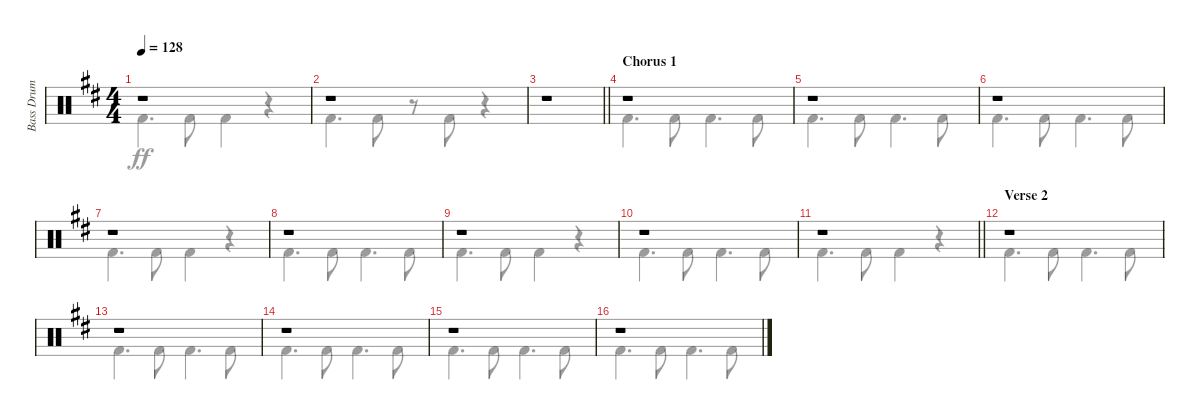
\track ("Bass Drum" "Bass Drum") {instrument percussion}
\staff {score}
\articulation defaults
\voice
\ts (4 4)
\tempo 128
\clef neutral
\ks bminor
r.1{dy f} |
r.1 |
\barLineRight lightlight
r.1 |
\section ("" "Chorus 1")
r.1 |
r.1 |
r.1 |
r.1 |
r.1 |
r.1 |
r.1 |
\barLineRight lightlight
r.1 |
\section ("" "Verse 2")
r.1 |
r.1 |
r.1 |
r.1 |
r.1
\voice
\clef neutral
\ottava regular
\simile none
\ks bminor "Kick (hit) 2".4{d dy ff} "Kick (hit) 2".8 "Kick (hit) 2".4
r.4 |
"Kick (hit) 2".4{d} "Kick (hit) 2".8 r.8 "Kick (hit) 2".8 r.4 |
\barLineRight lightlight
|
"Kick (hit) 2".4{d} "Kick (hit) 2".8 "Kick (hit) 2".4{d} "Kick (hit) 2".8 |
"Kick (hit) 2".4{d} "Kick (hit) 2".8 "Kick (hit) 2".4{d} "Kick (hit) 2".8 |
"Kick (hit) 2".4{d} "Kick (hit) 2".8 "Kick (hit) 2".4{d} "Kick (hit) 2".8 |
"Kick (hit) 2".4{d} "Kick (hit) 2".8 "Kick (hit) 2".4 r.4 |
"Kick (hit) 2".4{d} "Kick (hit) 2".8 "Kick (hit) 2".4{d} "Kick (hit) 2".8 |
"Kick (hit) 2".4{d} "Kick (hit) 2".8 "Kick (hit) 2".4 r.4 |
"Kick (hit) 2".4{d} "Kick (hit) 2".8 "Kick (hit) 2".4{d} "Kick (hit) 2".8 |
\barLineRight lightlight "Kick (hit) 2".4{d} "Kick (hit) 2".8 "Kick (hit) 2".4
r.4 |
"Kick (hit) 2".4{d} "Kick (hit) 2".8 "Kick (hit) 2".4{d} "Kick (hit) 2".8 |
"Kick (hit) 2".4{d} "Kick (hit) 2".8 "Kick (hit) 2".4{d} "Kick (hit) 2".8 |
"Kick (hit) 2".4{d} "Kick (hit) 2".8 "Kick (hit) 2".4{d} "Kick (hit) 2".8 |
"Kick (hit) 2".4{d} "Kick (hit) 2".8 "Kick (hit) 2".4{d} "Kick (hit) 2".8 |
"Kick (hit) 2".4{d} "Kick (hit) 2".8 "Kick (hit) 2".4{d} "Kick (hit) 2".8
